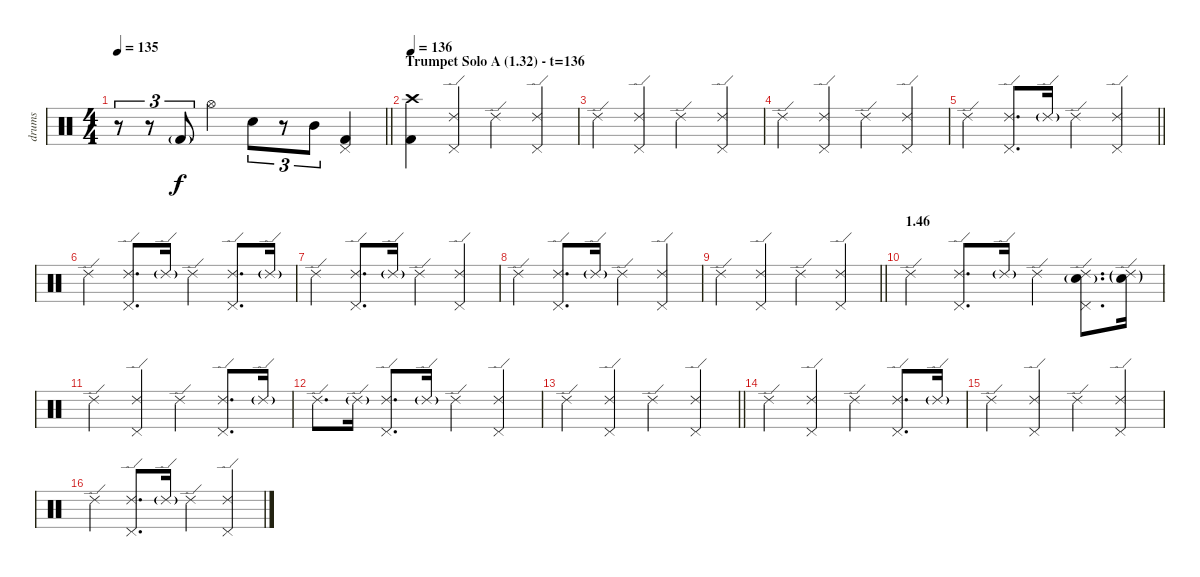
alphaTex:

\track ("drums" "drums") {instrument percussion}
\staff {score}
\articulation defaults
\ts (4 4)
\tempo 135
\clef neutral
\barLineRight lightlight
\ks c
r.8{tu (3 2) dy f} r.8{tu (3 2)} "Kick (hit) 2"{g}.8{tu (3 2)} "Hi-Hat (open)".4 "Electric Snare (hit)".8{tu (3 2)} r.8{tu (3 2)} "Mid Tom (hit)".8{tu (3 2)} ("Pedal Hi-Hat (hit)" "Kick (hit) 2").4 |
\section ("" "Trumpet Solo A (1.32) - t=136")
\tempo 136
("Crash high (hit)" "Kick (hit) 2").4 ("Ride (edge) 2" "Pedal Hi-Hat (hit)").4 "Ride (edge) 2".4 ("Ride (edge) 2" "Pedal Hi-Hat (hit)").4 |
"Ride (edge) 2".4 ("Ride (edge) 2" "Pedal Hi-Hat (hit)").4 "Ride (edge) 2".4 ("Ride (edge) 2" "Pedal Hi-Hat (hit)").4 |
"Ride (edge) 2".4 ("Ride (edge) 2" "Pedal Hi-Hat (hit)").4 "Ride (edge) 2".4 ("Ride (edge) 2" "Pedal Hi-Hat (hit)").4 |
\barLineRight lightlight "Ride (edge) 2".4
("Ride (edge) 2" "Pedal Hi-Hat (hit)").8{d} "Ride (edge) 2"{g}.16 "Ride (edge) 2".4 ("Ride (edge) 2" "Pedal Hi-Hat (hit)").4 |
"Ride (edge) 2".4 ("Ride (edge) 2" "Pedal Hi-Hat (hit)").8{d} "Ride (edge) 2"{g}.16 "Ride (edge) 2".4 ("Ride (edge) 2" "Pedal Hi-Hat (hit)").8{d} "Ride (edge) 2"{g}.16 |
"Ride (edge) 2".4 ("Ride (edge) 2" "Pedal Hi-Hat (hit)").8{d} "Ride (edge) 2"{g}.16 "Ride (edge) 2".4 ("Ride (edge) 2" "Pedal Hi-Hat (hit)").4 |
"Ride (edge) 2".4 ("Ride (edge) 2" "Pedal Hi-Hat (hit)").8{d} "Ride (edge) 2"{g}.16 "Ride (edge) 2".4 ("Ride (edge) 2" "Pedal Hi-Hat (hit)").4 |
\barLineRight lightlight "Ride (edge) 2".4
("Ride (edge) 2" "Pedal Hi-Hat (hit)").4 "Ride (edge) 2".4 ("Ride (edge) 2" "Pedal Hi-Hat (hit)").4 |
\section ("" "1.46")
"Ride (edge) 2".4 ("Ride (edge) 2" "Pedal Hi-Hat (hit)").8{d} "Ride (edge) 2"{g}.16 "Ride (edge) 2".4 ("Ride (edge) 2" "Pedal Hi-Hat (hit)" "Electric Snare (hit)"{g}).8{d} ("Ride (edge) 2"{g} "Electric Snare (hit)"{g}).16 |
"Ride (edge) 2".4 ("Ride (edge) 2" "Pedal Hi-Hat (hit)").4 "Ride (edge) 2".4 ("Ride (edge) 2" "Pedal Hi-Hat (hit)").8{d} "Ride (edge) 2"{g}.16 |
"Ride (edge) 2".8{d} "Ride (edge) 2"{g}.16 ("Ride (edge) 2" "Pedal Hi-Hat (hit)").8{d} "Ride (edge) 2"{g}.16 "Ride (edge) 2".4 ("Ride (edge) 2" "Pedal Hi-Hat (hit)").4 |
\barLineRight lightlight "Ride (edge) 2".4
("Ride (edge) 2" "Pedal Hi-Hat (hit)").4 "Ride (edge) 2".4 ("Ride (edge) 2" "Pedal Hi-Hat (hit)").4 |
"Ride (edge) 2".4 ("Ride (edge) 2" "Pedal Hi-Hat (hit)").4 "Ride (edge) 2".4 ("Ride (edge) 2" "Pedal Hi-Hat (hit)").8{d} "Ride (edge) 2"{g}.16 |
"Ride (edge) 2".4 ("Ride (edge) 2" "Pedal Hi-Hat (hit)").4 "Ride (edge) 2".4 ("Ride (edge) 2" "Pedal Hi-Hat (hit)").4 |
"Ride (edge) 2".4 ("Ride (edge) 2" "Pedal Hi-Hat (hit)").8{d} "Ride (edge) 2"{g}.16 "Ride (edge) 2".4 ("Ride (edge) 2" "Pedal Hi-Hat (hit)").4
